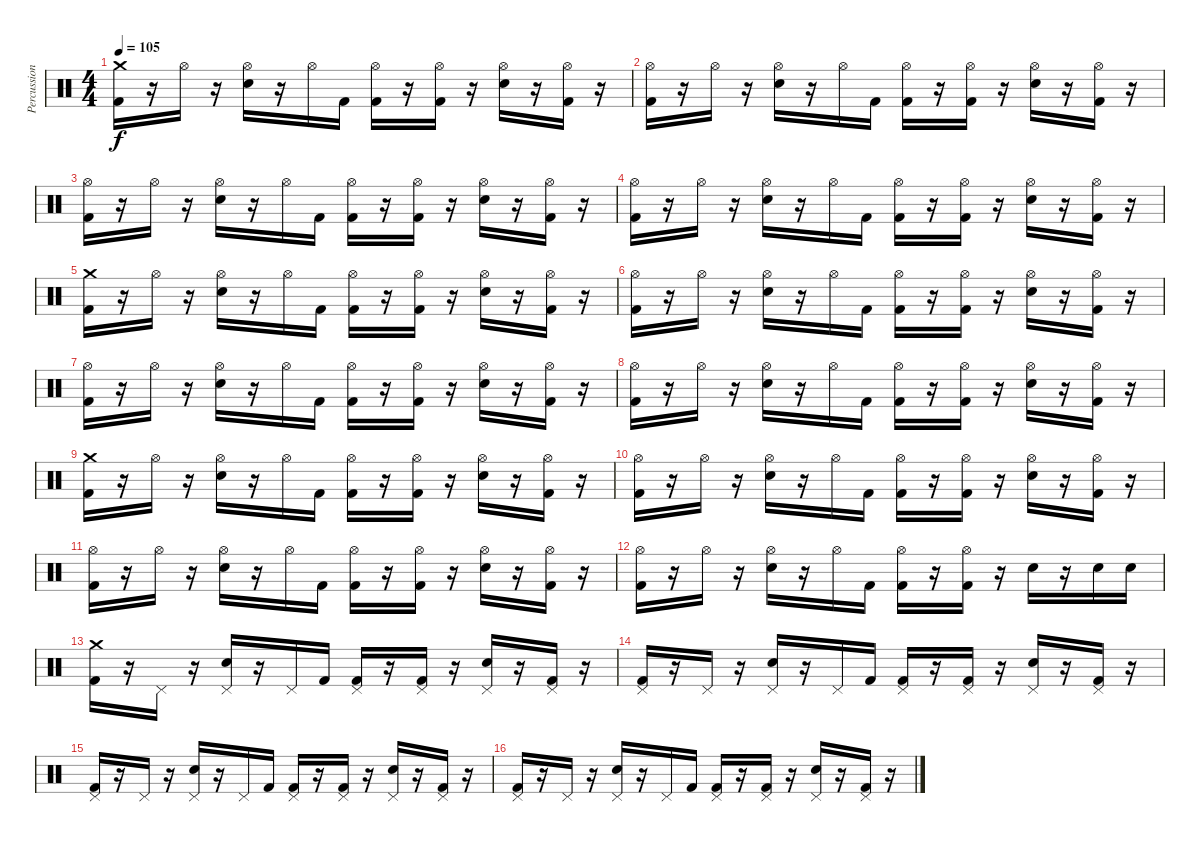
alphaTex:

\track ("Percussions" "Percussion") {instrument percussion}
\staff {score}
\articulation defaults
\ts (4 4)
\tempo 105
\clef neutral
\ks c
("Crash medium (hit)" "Kick (hit) 2").16{dy f volume 16} r.16 "Hi-Hat (open)".16 r.16 ("Hi-Hat (open)" "Snare (hit) 2").16 r.16 "Hi-Hat (open)".16 "Kick (hit) 2".16 ("Hi-Hat (open)" "Kick (hit) 2").16 r.16 ("Hi-Hat (open)" "Kick (hit) 2").16 r.16 ("Hi-Hat (open)" "Snare (hit) 2").16 r.16 ("Hi-Hat (open)" "Kick (hit) 2").16 r.16 |
("Hi-Hat (open)" "Kick (hit) 2").16 r.16 "Hi-Hat (open)".16 r.16 ("Hi-Hat (open)" "Snare (hit) 2").16 r.16 "Hi-Hat (open)".16 "Kick (hit) 2".16 ("Hi-Hat (open)" "Kick (hit) 2").16 r.16 ("Hi-Hat (open)" "Kick (hit) 2").16 r.16 ("Hi-Hat (open)" "Snare (hit) 2").16 r.16 ("Hi-Hat (open)" "Kick (hit) 2").16 r.16 |
("Hi-Hat (open)" "Kick (hit) 2").16 r.16 "Hi-Hat (open)".16 r.16 ("Hi-Hat (open)" "Snare (hit) 2").16 r.16 "Hi-Hat (open)".16 "Kick (hit) 2".16 ("Hi-Hat (open)" "Kick (hit) 2").16 r.16 ("Hi-Hat (open)" "Kick (hit) 2").16 r.16 ("Hi-Hat (open)" "Snare (hit) 2").16 r.16 ("Hi-Hat (open)" "Kick (hit) 2").16 r.16 |
("Hi-Hat (open)" "Kick (hit) 2").16 r.16 "Hi-Hat (open)".16 r.16 ("Hi-Hat (open)" "Snare (hit) 2").16 r.16 "Hi-Hat (open)".16 "Kick (hit) 2".16 ("Hi-Hat (open)" "Kick (hit) 2").16 r.16 ("Hi-Hat (open)" "Kick (hit) 2").16 r.16 ("Hi-Hat (open)" "Snare (hit) 2").16 r.16 ("Hi-Hat (open)" "Kick (hit) 2").16 r.16 |
("Crash medium (hit)" "Kick (hit) 2").16{volume 16} r.16 "Hi-Hat (open)".16 r.16 ("Hi-Hat (open)" "Snare (hit) 2").16 r.16 "Hi-Hat (open)".16 "Kick (hit) 2".16 ("Hi-Hat (open)" "Kick (hit) 2").16 r.16 ("Hi-Hat (open)" "Kick (hit) 2").16 r.16 ("Hi-Hat (open)" "Snare (hit) 2").16 r.16 ("Hi-Hat (open)" "Kick (hit) 2").16 r.16 |
("Hi-Hat (open)" "Kick (hit) 2").16 r.16 "Hi-Hat (open)".16 r.16 ("Hi-Hat (open)" "Snare (hit) 2").16 r.16 "Hi-Hat (open)".16 "Kick (hit) 2".16 ("Hi-Hat (open)" "Kick (hit) 2").16 r.16 ("Hi-Hat (open)" "Kick (hit) 2").16 r.16 ("Hi-Hat (open)" "Snare (hit) 2").16 r.16 ("Hi-Hat (open)" "Kick (hit) 2").16 r.16 |
("Hi-Hat (open)" "Kick (hit) 2").16 r.16 "Hi-Hat (open)".16 r.16 ("Hi-Hat (open)" "Snare (hit) 2").16 r.16 "Hi-Hat (open)".16 "Kick (hit) 2".16 ("Hi-Hat (open)" "Kick (hit) 2").16 r.16 ("Hi-Hat (open)" "Kick (hit) 2").16 r.16 ("Hi-Hat (open)" "Snare (hit) 2").16 r.16 ("Hi-Hat (open)" "Kick (hit) 2").16 r.16 |
("Hi-Hat (open)" "Kick (hit) 2").16 r.16 "Hi-Hat (open)".16 r.16 ("Hi-Hat (open)" "Snare (hit) 2").16 r.16 "Hi-Hat (open)".16 "Kick (hit) 2".16 ("Hi-Hat (open)" "Kick (hit) 2").16 r.16 ("Hi-Hat (open)" "Kick (hit) 2").16 r.16 ("Hi-Hat (open)" "Snare (hit) 2").16 r.16 ("Hi-Hat (open)" "Kick (hit) 2").16 r.16 |
("Crash medium (hit)" "Kick (hit) 2").16{volume 16} r.16 "Hi-Hat (open)".16 r.16 ("Hi-Hat (open)" "Snare (hit) 2").16 r.16 "Hi-Hat (open)".16 "Kick (hit) 2".16 ("Hi-Hat (open)" "Kick (hit) 2").16 r.16 ("Hi-Hat (open)" "Kick (hit) 2").16 r.16 ("Hi-Hat (open)" "Snare (hit) 2").16 r.16 ("Hi-Hat (open)" "Kick (hit) 2").16 r.16 |
("Hi-Hat (open)" "Kick (hit) 2").16 r.16 "Hi-Hat (open)".16 r.16 ("Hi-Hat (open)" "Snare (hit) 2").16 r.16 "Hi-Hat (open)".16 "Kick (hit) 2".16 ("Hi-Hat (open)" "Kick (hit) 2").16 r.16 ("Hi-Hat (open)" "Kick (hit) 2").16 r.16 ("Hi-Hat (open)" "Snare (hit) 2").16 r.16 ("Hi-Hat (open)" "Kick (hit) 2").16 r.16 |
("Hi-Hat (open)" "Kick (hit) 2").16 r.16 "Hi-Hat (open)".16 r.16 ("Hi-Hat (open)" "Snare (hit) 2").16 r.16 "Hi-Hat (open)".16 "Kick (hit) 2".16 ("Hi-Hat (open)" "Kick (hit) 2").16 r.16 ("Hi-Hat (open)" "Kick (hit) 2").16 r.16 ("Hi-Hat (open)" "Snare (hit) 2").16 r.16 ("Hi-Hat (open)" "Kick (hit) 2").16 r.16 |
("Hi-Hat (open)" "Kick (hit) 2").16 r.16 "Hi-Hat (open)".16 r.16 ("Hi-Hat (open)" "Snare (hit) 2").16 r.16 "Hi-Hat (open)".16 "Kick (hit) 2".16 ("Hi-Hat (open)" "Kick (hit) 2").16 r.16 ("Hi-Hat (open)" "Kick (hit) 2").16 r.16 "Snare (hit) 2".16 r.16 "Snare (hit) 2".16 "Snare (hit) 2".16 |
("Crash medium (hit)" "Kick (hit) 2").16{volume 16} r.16 "Pedal Hi-Hat (hit)".16 r.16 ("Pedal Hi-Hat (hit)" "Snare (hit) 2").16 r.16 "Pedal Hi-Hat (hit)".16 "Kick (hit) 2".16 ("Pedal Hi-Hat (hit)" "Kick (hit) 2").16 r.16 ("Pedal Hi-Hat (hit)" "Kick (hit) 2").16 r.16 ("Pedal Hi-Hat (hit)" "Snare (hit) 2").16 r.16 ("Pedal Hi-Hat (hit)" "Kick (hit) 2").16 r.16 |
("Pedal Hi-Hat (hit)" "Kick (hit) 2").16 r.16 "Pedal Hi-Hat (hit)".16 r.16 ("Pedal Hi-Hat (hit)" "Snare (hit) 2").16 r.16 "Pedal Hi-Hat (hit)".16 "Kick (hit) 2".16 ("Pedal Hi-Hat (hit)" "Kick (hit) 2").16 r.16 ("Pedal Hi-Hat (hit)" "Kick (hit) 2").16 r.16 ("Pedal Hi-Hat (hit)" "Snare (hit) 2").16 r.16 ("Pedal Hi-Hat (hit)" "Kick (hit) 2").16 r.16 |
("Pedal Hi-Hat (hit)" "Kick (hit) 2").16 r.16 "Pedal Hi-Hat (hit)".16 r.16 ("Pedal Hi-Hat (hit)" "Snare (hit) 2").16 r.16 "Pedal Hi-Hat (hit)".16 "Kick (hit) 2".16 ("Pedal Hi-Hat (hit)" "Kick (hit) 2").16 r.16 ("Pedal Hi-Hat (hit)" "Kick (hit) 2").16 r.16 ("Pedal Hi-Hat (hit)" "Snare (hit) 2").16 r.16 ("Pedal Hi-Hat (hit)" "Kick (hit) 2").16 r.16 |
("Pedal Hi-Hat (hit)" "Kick (hit) 2").16 r.16 "Pedal Hi-Hat (hit)".16 r.16 ("Pedal Hi-Hat (hit)" "Snare (hit) 2").16 r.16 "Pedal Hi-Hat (hit)".16 "Kick (hit) 2".16 ("Pedal Hi-Hat (hit)" "Kick (hit) 2").16 r.16 ("Pedal Hi-Hat (hit)" "Kick (hit) 2").16 r.16 ("Pedal Hi-Hat (hit)" "Snare (hit) 2").16 r.16 ("Pedal Hi-Hat (hit)" "Kick (hit) 2").16 r.16
